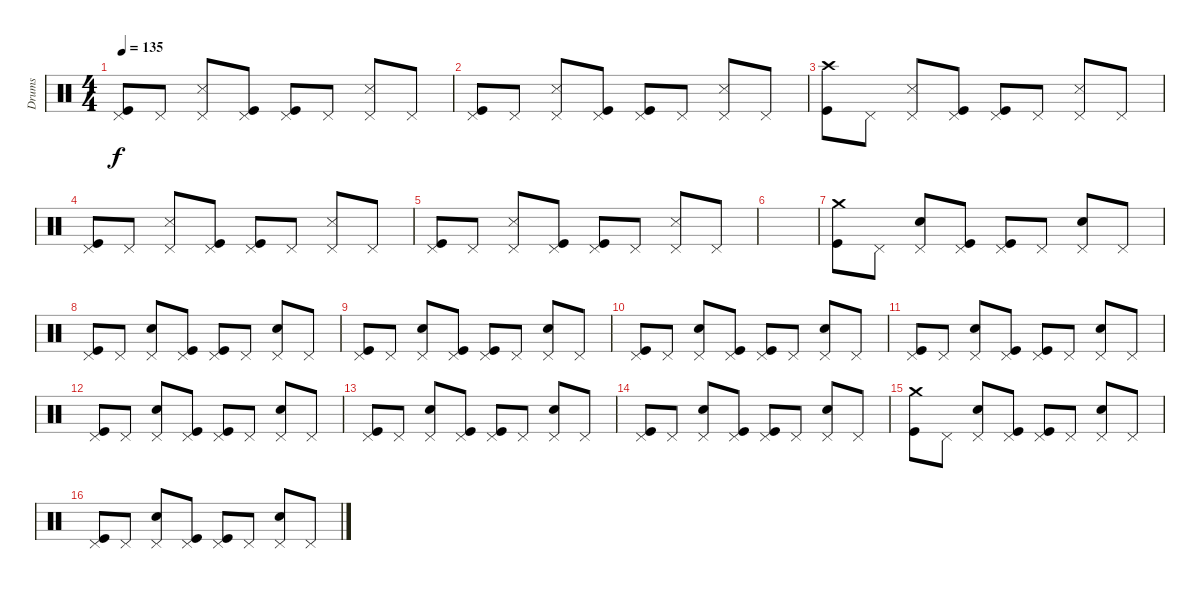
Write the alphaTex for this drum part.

\track ("Drums" "Drums") {instrument percussion}
\staff {score}
\articulation defaults
\ts (4 4)
\tempo 135
\clef neutral
\ks c
("Pedal Hi-Hat (hit)" "Kick (hit)").8{dy f} "Pedal Hi-Hat (hit)".8 ("Pedal Hi-Hat (hit)" "Snare (side stick) 3").8 ("Pedal Hi-Hat (hit)" "Kick (hit)").8 ("Pedal Hi-Hat (hit)" "Kick (hit)").8 "Pedal Hi-Hat (hit)".8 ("Pedal Hi-Hat (hit)" "Snare (side stick) 3").8 "Pedal Hi-Hat (hit)".8 |
("Pedal Hi-Hat (hit)" "Kick (hit)").8 "Pedal Hi-Hat (hit)".8 ("Pedal Hi-Hat (hit)" "Snare (side stick) 3").8 ("Pedal Hi-Hat (hit)" "Kick (hit)").8 ("Pedal Hi-Hat (hit)" "Kick (hit)").8 "Pedal Hi-Hat (hit)".8 ("Pedal Hi-Hat (hit)" "Snare (side stick) 3").8 "Pedal Hi-Hat (hit)".8 |
("Crash high (hit)" "Kick (hit)").8 "Pedal Hi-Hat (hit)".8 ("Pedal Hi-Hat (hit)" "Snare (side stick) 3").8 ("Pedal Hi-Hat (hit)" "Kick (hit)").8 ("Pedal Hi-Hat (hit)" "Kick (hit)").8 "Pedal Hi-Hat (hit)".8 ("Pedal Hi-Hat (hit)" "Snare (side stick) 3").8 "Pedal Hi-Hat (hit)".8 |
("Pedal Hi-Hat (hit)" "Kick (hit)").8 "Pedal Hi-Hat (hit)".8 ("Pedal Hi-Hat (hit)" "Snare (side stick) 3").8 ("Pedal Hi-Hat (hit)" "Kick (hit)").8 ("Pedal Hi-Hat (hit)" "Kick (hit)").8 "Pedal Hi-Hat (hit)".8 ("Pedal Hi-Hat (hit)" "Snare (side stick) 3").8 "Pedal Hi-Hat (hit)".8 |
("Pedal Hi-Hat (hit)" "Kick (hit)").8 "Pedal Hi-Hat (hit)".8 ("Pedal Hi-Hat (hit)" "Snare (side stick) 3").8 ("Pedal Hi-Hat (hit)" "Kick (hit)").8 ("Pedal Hi-Hat (hit)" "Kick (hit)").8 "Pedal Hi-Hat (hit)".8 ("Pedal Hi-Hat (hit)" "Snare (side stick) 3").8 "Pedal Hi-Hat (hit)".8 |
|
("Crash medium (hit)" "Kick (hit)").8 "Pedal Hi-Hat (hit)".8 ("Pedal Hi-Hat (hit)" "Electric Snare (hit)").8 ("Pedal Hi-Hat (hit)" "Kick (hit)").8 ("Pedal Hi-Hat (hit)" "Kick (hit)").8 "Pedal Hi-Hat (hit)".8 ("Pedal Hi-Hat (hit)" "Electric Snare (hit)").8 "Pedal Hi-Hat (hit)".8 |
("Pedal Hi-Hat (hit)" "Kick (hit)").8 "Pedal Hi-Hat (hit)".8 ("Pedal Hi-Hat (hit)" "Electric Snare (hit)").8 ("Pedal Hi-Hat (hit)" "Kick (hit)").8 ("Pedal Hi-Hat (hit)" "Kick (hit)").8 "Pedal Hi-Hat (hit)".8 ("Pedal Hi-Hat (hit)" "Electric Snare (hit)").8 "Pedal Hi-Hat (hit)".8 |
("Pedal Hi-Hat (hit)" "Kick (hit)").8 "Pedal Hi-Hat (hit)".8 ("Pedal Hi-Hat (hit)" "Electric Snare (hit)").8 ("Pedal Hi-Hat (hit)" "Kick (hit)").8 ("Pedal Hi-Hat (hit)" "Kick (hit)").8 "Pedal Hi-Hat (hit)".8 ("Pedal Hi-Hat (hit)" "Electric Snare (hit)").8 "Pedal Hi-Hat (hit)".8 |
("Pedal Hi-Hat (hit)" "Kick (hit)").8 "Pedal Hi-Hat (hit)".8 ("Pedal Hi-Hat (hit)" "Electric Snare (hit)").8 ("Pedal Hi-Hat (hit)" "Kick (hit)").8 ("Pedal Hi-Hat (hit)" "Kick (hit)").8 "Pedal Hi-Hat (hit)".8 ("Pedal Hi-Hat (hit)" "Electric Snare (hit)").8 "Pedal Hi-Hat (hit)".8 |
("Pedal Hi-Hat (hit)" "Kick (hit)").8 "Pedal Hi-Hat (hit)".8 ("Pedal Hi-Hat (hit)" "Electric Snare (hit)").8 ("Pedal Hi-Hat (hit)" "Kick (hit)").8 ("Pedal Hi-Hat (hit)" "Kick (hit)").8 "Pedal Hi-Hat (hit)".8 ("Pedal Hi-Hat (hit)" "Electric Snare (hit)").8 "Pedal Hi-Hat (hit)".8 |
("Pedal Hi-Hat (hit)" "Kick (hit)").8 "Pedal Hi-Hat (hit)".8 ("Pedal Hi-Hat (hit)" "Electric Snare (hit)").8 ("Pedal Hi-Hat (hit)" "Kick (hit)").8 ("Pedal Hi-Hat (hit)" "Kick (hit)").8 "Pedal Hi-Hat (hit)".8 ("Pedal Hi-Hat (hit)" "Electric Snare (hit)").8 "Pedal Hi-Hat (hit)".8 |
("Pedal Hi-Hat (hit)" "Kick (hit)").8 "Pedal Hi-Hat (hit)".8 ("Pedal Hi-Hat (hit)" "Electric Snare (hit)").8 ("Pedal Hi-Hat (hit)" "Kick (hit)").8 ("Pedal Hi-Hat (hit)" "Kick (hit)").8 "Pedal Hi-Hat (hit)".8 ("Pedal Hi-Hat (hit)" "Electric Snare (hit)").8 "Pedal Hi-Hat (hit)".8 |
("Pedal Hi-Hat (hit)" "Kick (hit)").8 "Pedal Hi-Hat (hit)".8 ("Pedal Hi-Hat (hit)" "Electric Snare (hit)").8 ("Pedal Hi-Hat (hit)" "Kick (hit)").8 ("Pedal Hi-Hat (hit)" "Kick (hit)").8 "Pedal Hi-Hat (hit)".8 ("Pedal Hi-Hat (hit)" "Electric Snare (hit)").8 "Pedal Hi-Hat (hit)".8 |
("Crash medium (hit)" "Kick (hit)").8 "Pedal Hi-Hat (hit)".8 ("Pedal Hi-Hat (hit)" "Electric Snare (hit)").8 ("Pedal Hi-Hat (hit)" "Kick (hit)").8 ("Pedal Hi-Hat (hit)" "Kick (hit)").8 "Pedal Hi-Hat (hit)".8 ("Pedal Hi-Hat (hit)" "Electric Snare (hit)").8 "Pedal Hi-Hat (hit)".8 |
("Pedal Hi-Hat (hit)" "Kick (hit)").8 "Pedal Hi-Hat (hit)".8 ("Pedal Hi-Hat (hit)" "Electric Snare (hit)").8 ("Pedal Hi-Hat (hit)" "Kick (hit)").8 ("Pedal Hi-Hat (hit)" "Kick (hit)").8 "Pedal Hi-Hat (hit)".8 ("Pedal Hi-Hat (hit)" "Electric Snare (hit)").8 "Pedal Hi-Hat (hit)".8
